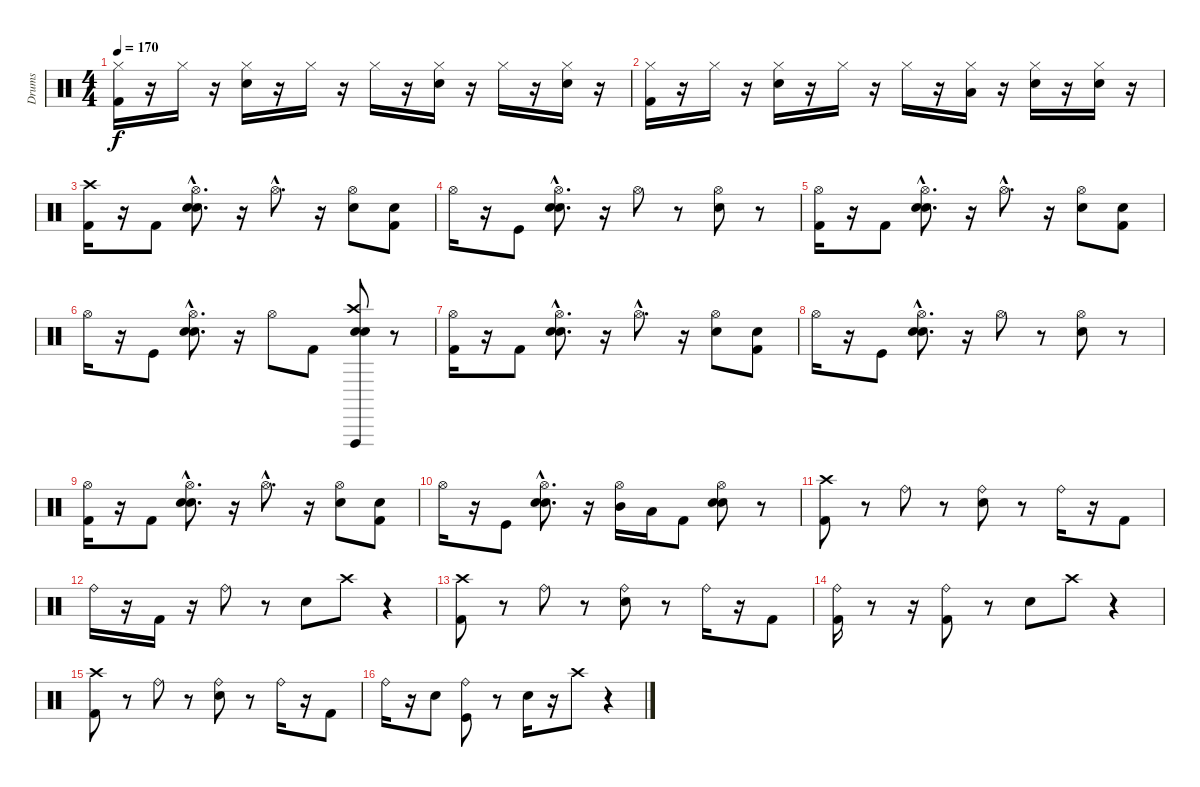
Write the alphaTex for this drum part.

\track ("Drums" "Drums") {instrument percussion}
\staff {score}
\articulation defaults
\ts (4 4)
\tempo 170
\clef neutral
\ks c
("Kick (hit) 2" "Hi-Hat (closed)").16{dy f} r.16 "Hi-Hat (closed)".16 r.16 ("Electric Snare (hit)" "Hi-Hat (closed)").16 r.16 "Hi-Hat (closed)".16 r.16 "Hi-Hat (closed)".16 r.16 ("Electric Snare (hit)" "Hi-Hat (closed)").16 r.16 "Hi-Hat (closed)".16 r.16 ("Electric Snare (hit)" "Hi-Hat (closed)").16 r.16 |
("Kick (hit) 2" "Hi-Hat (closed)").16 r.16 "Hi-Hat (closed)".16 r.16 ("Electric Snare (hit)" "Hi-Hat (closed)").16 r.16 "Hi-Hat (closed)".16 r.16 "Hi-Hat (closed)".16 r.16 ("Low Floor Tom (hit)" "Hi-Hat (closed)").16 r.16 ("Electric Snare (hit)" "Hi-Hat (closed)").16 r.16 ("Electric Snare (hit)" "Hi-Hat (closed)").16 r.16 |
("Kick (hit) 2" "Crash high (hit)").16 r.16 "Kick (hit) 2".8 ("Snare (hit)"{hac} "Electric Snare (hit)"{hac} "Hi-Hat (open)"{hac}).8{d} r.16 "Hi-Hat (open)"{hac}.8{d} r.16 ("Electric Snare (hit)" "Hi-Hat (open)").8 ("Snare (hit)" "Kick (hit) 2").8 |
"Hi-Hat (open)".16 r.16 "Kick (hit)".8 ("Snare (hit)"{hac} "Electric Snare (hit)"{hac} "Hi-Hat (open)"{hac}).8{d} r.16 "Hi-Hat (open)".8 r.8 ("Electric Snare (hit)" "Hi-Hat (open)").8 r.8 |
("Kick (hit) 2" "Hi-Hat (open)").16 r.16 "Kick (hit) 2".8 ("Snare (hit)"{hac} "Electric Snare (hit)"{hac} "Hi-Hat (open)"{hac}).8{d} r.16 "Hi-Hat (open)"{hac}.8{d} r.16 ("Electric Snare (hit)" "Hi-Hat (open)").8 ("Snare (hit)" "Kick (hit) 2").8 |
"Hi-Hat (open)".16 r.16 "Kick (hit)".8 ("Snare (hit)"{hac} "Electric Snare (hit)"{hac} "Hi-Hat (open)"{hac}).8{d} r.16 "Hi-Hat (open)".8 "Kick (hit) 2".8 ("Snare (hit)" "Electric Snare (hit)" "Crash high (hit)" "Vibraslap (hit)").8 r.8 |
("Kick (hit) 2" "Hi-Hat (open)").16 r.16 "Kick (hit) 2".8 ("Snare (hit)"{hac} "Electric Snare (hit)"{hac} "Hi-Hat (open)"{hac}).8{d} r.16 "Hi-Hat (open)"{hac}.8{d} r.16 ("Electric Snare (hit)" "Hi-Hat (open)").8 ("Snare (hit)" "Kick (hit) 2").8 |
"Hi-Hat (open)".16 r.16 "Kick (hit)".8 ("Snare (hit)"{hac} "Electric Snare (hit)"{hac} "Hi-Hat (open)"{hac}).8{d} r.16 "Hi-Hat (open)".8 r.8 ("Electric Snare (hit)" "Hi-Hat (open)").8 r.8 |
("Kick (hit) 2" "Hi-Hat (open)").16 r.16 "Kick (hit) 2".8 ("Snare (hit)"{hac} "Electric Snare (hit)"{hac} "Hi-Hat (open)"{hac}).8{d} r.16 "Hi-Hat (open)"{hac}.8{d} r.16 ("Electric Snare (hit)" "Hi-Hat (open)").8 ("Snare (hit)" "Kick (hit) 2").8 |
"Hi-Hat (open)".16 r.16 "Kick (hit)".8 ("Snare (hit)"{hac} "Electric Snare (hit)"{hac} "Hi-Hat (open)"{hac}).8{d} r.16 ("Hi-Hat (open)" "Mid Tom (hit)").16 "Low Tom (hit)".16 "Kick (hit) 2".8 ("Snare (hit)" "Electric Snare (hit)" "Hi-Hat (open)").8 r.8 |
("Kick (hit) 2" "Crash high (hit)").8 r.8 "Ride (bell)".8 r.8 ("Electric Snare (hit)" "Ride (bell)").8 r.8 "Ride (bell)".16 r.16 "Kick (hit) 2".8 |
"Ride (bell)".16 r.16 "Kick (hit) 2".16 r.16 "Ride (bell)".8 r.8 "Electric Snare (hit)".8 "Crash high (hit)".8 r.4 |
("Kick (hit) 2" "Crash high (hit)").8 r.8 "Ride (bell)".8 r.8 ("Electric Snare (hit)" "Ride (bell)").8 r.8 "Ride (bell)".16 r.16 "Kick (hit) 2".8 |
("Kick (hit) 2" "Ride (bell)").16 r.8 r.16 ("Kick (hit) 2" "Ride (bell)").8 r.8 "Electric Snare (hit)".8 "Crash high (hit)".8 r.4 |
("Kick (hit) 2" "Crash high (hit)").8 r.8 "Ride (bell)".8 r.8 ("Electric Snare (hit)" "Ride (bell)").8 r.8 "Ride (bell)".16 r.16 "Kick (hit) 2".8 |
"Ride (bell)".16 r.16 "Electric Snare (hit)".8 ("Kick (hit)" "Ride (bell)").8 r.8 "Electric Snare (hit)".16 r.16 "Crash high (hit)".8 r.4
